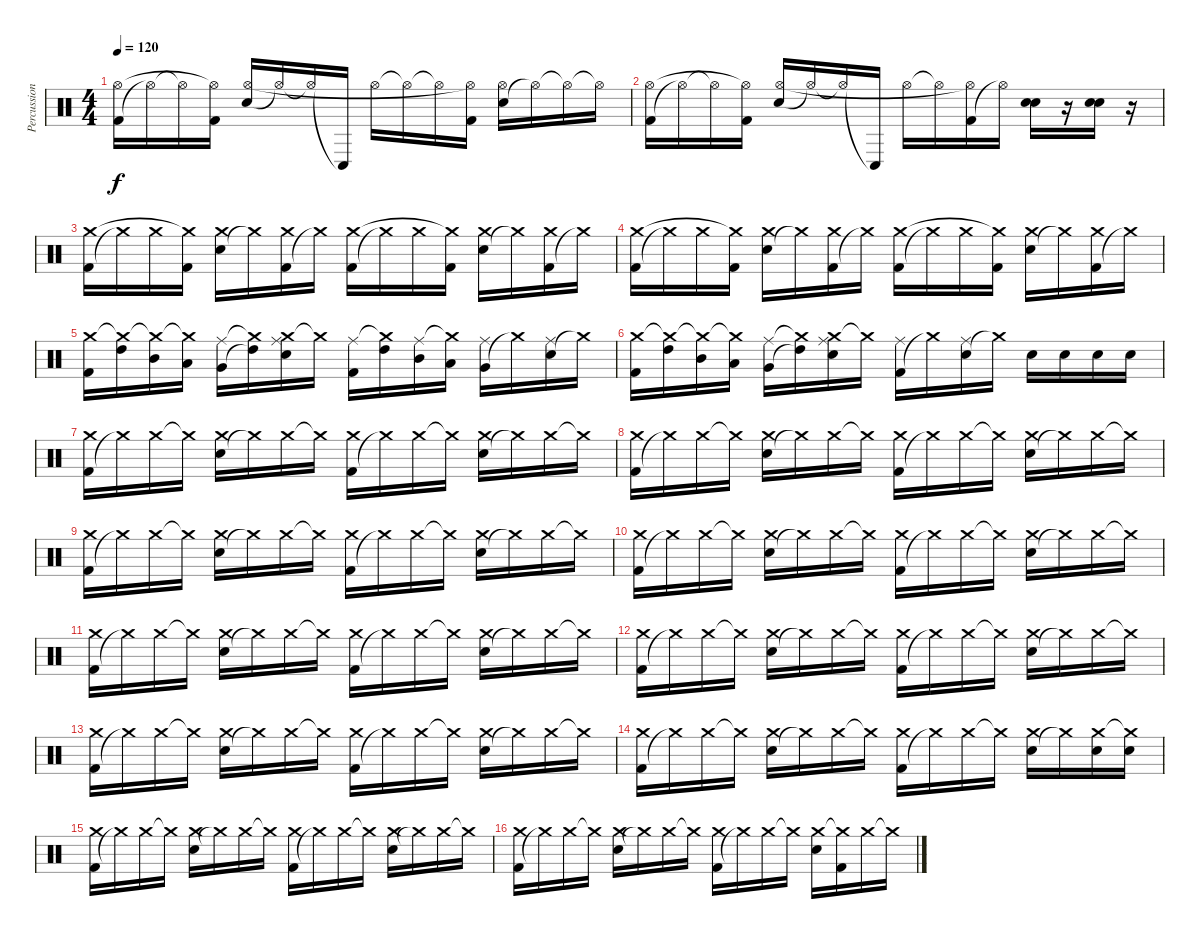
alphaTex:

\track ("Percussions" "Percussion") {instrument percussion}
\staff {score}
\articulation defaults
\ts (4 4)
\tempo 120
\clef neutral
\ks c
("Kick (hit) 2" "Hi-Hat (open)").16{dy f} "Hi-Hat (open)"{t}.16 "Hi-Hat (open)"{t}.16 ("Kick (hit) 2" "Hi-Hat (open)"{t}).16 ("Electric Snare (hit)" "Hi-Hat (open)").16 "Hi-Hat (open)"{t}.16 "Hi-Hat (open)"{t}.16 "Conga low (hit)"{t}.16 "Hi-Hat (open)".16 "Hi-Hat (open)"{t}.16 "Hi-Hat (open)"{t}.16 ("Kick (hit) 2" "Hi-Hat (open)"{t}).16 ("Electric Snare (hit)" "Hi-Hat (open)").16 "Hi-Hat (open)"{t}.16 "Hi-Hat (open)"{t}.16 "Hi-Hat (open)"{t}.16 |
("Kick (hit) 2" "Hi-Hat (open)").16 "Hi-Hat (open)"{t}.16 "Hi-Hat (open)"{t}.16 ("Kick (hit) 2" "Hi-Hat (open)"{t}).16 ("Electric Snare (hit)" "Hi-Hat (open)").16 "Hi-Hat (open)"{t}.16 "Hi-Hat (open)"{t}.16 "Conga low (hit)"{t}.16 "Hi-Hat (open)".16 "Hi-Hat (open)"{t}.16 ("Kick (hit) 2" "Hi-Hat (open)"{t}).16 "Hi-Hat (open)"{t}.16 ("Electric Snare (hit)" "Electric Snare (hit)").16 r.16 ("Electric Snare (hit)" "Electric Snare (hit)").16 r.16 |
("Kick (hit) 2" "Crash medium (hit)").16 "Crash medium (hit)"{t}.16 "Crash medium (hit)".16 ("Kick (hit) 2" "Crash medium (hit)"{t}).16 ("Electric Snare (hit)" "Crash medium (hit)").16 "Crash medium (hit)"{t}.16 ("Kick (hit) 2" "Crash medium (hit)").16 "Crash medium (hit)"{t}.16 ("Kick (hit) 2" "Crash medium (hit)").16 "Crash medium (hit)"{t}.16 "Crash medium (hit)".16 ("Kick (hit) 2" "Crash medium (hit)"{t}).16 ("Electric Snare (hit)" "Crash medium (hit)").16 "Crash medium (hit)"{t}.16 ("Kick (hit) 2" "Crash medium (hit)").16 "Crash medium (hit)"{t}.16 |
("Kick (hit) 2" "Crash medium (hit)").16 "Crash medium (hit)"{t}.16 "Crash medium (hit)".16 ("Kick (hit) 2" "Crash medium (hit)"{t}).16 ("Electric Snare (hit)" "Crash medium (hit)").16 "Crash medium (hit)"{t}.16 ("Kick (hit) 2" "Crash medium (hit)").16 "Crash medium (hit)"{t}.16 ("Kick (hit) 2" "Crash medium (hit)").16 "Crash medium (hit)"{t}.16 "Crash medium (hit)".16 ("Kick (hit) 2" "Crash medium (hit)"{t}).16 ("Electric Snare (hit)" "Crash medium (hit)").16 "Crash medium (hit)"{t}.16 ("Kick (hit) 2" "Crash medium (hit)").16 "Crash medium (hit)"{t}.16 |
("Kick (hit) 2" "Crash medium (hit)").16 ("High Tom (hit)" "Crash medium (hit)"{t}).16 ("Mid Tom (hit)" "Crash medium (hit)"{t}).16 ("Low Tom (hit)" "Crash medium (hit)"{t}).16 ("Very Low Tom (hit)" "Ride (middle)").16 ("High Tom (hit)"{t} "Crash medium (hit)"{t}).16 ("Crash medium (hit)" "Electric Snare (hit)" "Ride (middle)").16 "Crash medium (hit)"{t}.16 ("Kick (hit) 2" "Ride (middle)").16 ("High Tom (hit)" "Crash medium (hit)"{t}).16 ("Mid Tom (hit)" "Ride (middle)").16 ("Low Tom (hit)" "Crash medium (hit)"{t}).16 ("Very Low Tom (hit)" "Ride (middle)").16 "Crash medium (hit)"{t}.16 ("Electric Snare (hit)" "Ride (middle)").16 "Crash medium (hit)"{t}.16 |
("Kick (hit) 2" "Crash medium (hit)").16 ("High Tom (hit)" "Crash medium (hit)"{t}).16 ("Mid Tom (hit)" "Crash medium (hit)"{t}).16 ("Low Tom (hit)" "Crash medium (hit)"{t}).16 ("Very Low Tom (hit)" "Ride (middle)").16 ("High Tom (hit)"{t} "Crash medium (hit)"{t}).16 ("Crash medium (hit)" "Electric Snare (hit)" "Ride (middle)").16 "Crash medium (hit)"{t}.16 ("Kick (hit) 2" "Ride (middle)").16 "Crash medium (hit)"{t}.16 ("Electric Snare (hit)" "Ride (middle)").16 "Crash medium (hit)"{t}.16 "Electric Snare (hit)".16 "Electric Snare (hit)".16 "Electric Snare (hit)".16 "Electric Snare (hit)".16 |
("Kick (hit) 2" "Crash medium (hit)").16 "Crash medium (hit)"{t}.16 "Crash medium (hit)".16 "Crash medium (hit)"{t}.16 ("Electric Snare (hit)" "Crash medium (hit)").16 "Crash medium (hit)"{t}.16 "Crash medium (hit)".16 "Crash medium (hit)"{t}.16 ("Kick (hit) 2" "Crash medium (hit)").16 "Crash medium (hit)"{t}.16 "Crash medium (hit)".16 "Crash medium (hit)"{t}.16 ("Electric Snare (hit)" "Crash medium (hit)").16 "Crash medium (hit)"{t}.16 "Crash medium (hit)".16 "Crash medium (hit)"{t}.16 |
("Kick (hit) 2" "Crash medium (hit)").16 "Crash medium (hit)"{t}.16 "Crash medium (hit)".16 "Crash medium (hit)"{t}.16 ("Electric Snare (hit)" "Crash medium (hit)").16 "Crash medium (hit)"{t}.16 "Crash medium (hit)".16 "Crash medium (hit)"{t}.16 ("Kick (hit) 2" "Crash medium (hit)").16 "Crash medium (hit)"{t}.16 "Crash medium (hit)".16 "Crash medium (hit)"{t}.16 ("Electric Snare (hit)" "Crash medium (hit)").16 "Crash medium (hit)"{t}.16 "Crash medium (hit)".16 "Crash medium (hit)"{t}.16 |
("Kick (hit) 2" "Crash medium (hit)").16 "Crash medium (hit)"{t}.16 "Crash medium (hit)".16 "Crash medium (hit)"{t}.16 ("Electric Snare (hit)" "Crash medium (hit)").16 "Crash medium (hit)"{t}.16 "Crash medium (hit)".16 "Crash medium (hit)"{t}.16 ("Kick (hit) 2" "Crash medium (hit)").16 "Crash medium (hit)"{t}.16 "Crash medium (hit)".16 "Crash medium (hit)"{t}.16 ("Electric Snare (hit)" "Crash medium (hit)").16 "Crash medium (hit)"{t}.16 "Crash medium (hit)".16 "Crash medium (hit)"{t}.16 |
("Kick (hit) 2" "Crash medium (hit)").16 "Crash medium (hit)"{t}.16 "Crash medium (hit)".16 "Crash medium (hit)"{t}.16 ("Electric Snare (hit)" "Crash medium (hit)").16 "Crash medium (hit)"{t}.16 "Crash medium (hit)".16 "Crash medium (hit)"{t}.16 ("Kick (hit) 2" "Crash medium (hit)").16 "Crash medium (hit)"{t}.16 "Crash medium (hit)".16 "Crash medium (hit)"{t}.16 ("Electric Snare (hit)" "Crash medium (hit)").16 "Crash medium (hit)"{t}.16 "Crash medium (hit)".16 "Crash medium (hit)"{t}.16 |
("Kick (hit) 2" "Crash medium (hit)").16 "Crash medium (hit)"{t}.16 "Crash medium (hit)".16 "Crash medium (hit)"{t}.16 ("Electric Snare (hit)" "Crash medium (hit)").16 "Crash medium (hit)"{t}.16 "Crash medium (hit)".16 "Crash medium (hit)"{t}.16 ("Kick (hit) 2" "Crash medium (hit)").16 "Crash medium (hit)"{t}.16 "Crash medium (hit)".16 "Crash medium (hit)"{t}.16 ("Electric Snare (hit)" "Crash medium (hit)").16 "Crash medium (hit)"{t}.16 "Crash medium (hit)".16 "Crash medium (hit)"{t}.16 |
("Kick (hit) 2" "Crash medium (hit)").16 "Crash medium (hit)"{t}.16 "Crash medium (hit)".16 "Crash medium (hit)"{t}.16 ("Electric Snare (hit)" "Crash medium (hit)").16 "Crash medium (hit)"{t}.16 "Crash medium (hit)".16 "Crash medium (hit)"{t}.16 ("Kick (hit) 2" "Crash medium (hit)").16 "Crash medium (hit)"{t}.16 "Crash medium (hit)".16 "Crash medium (hit)"{t}.16 ("Electric Snare (hit)" "Crash medium (hit)").16 "Crash medium (hit)"{t}.16 "Crash medium (hit)".16 "Crash medium (hit)"{t}.16 |
("Kick (hit) 2" "Crash medium (hit)").16 "Crash medium (hit)"{t}.16 "Crash medium (hit)".16 "Crash medium (hit)"{t}.16 ("Electric Snare (hit)" "Crash medium (hit)").16 "Crash medium (hit)"{t}.16 "Crash medium (hit)".16 "Crash medium (hit)"{t}.16 ("Kick (hit) 2" "Crash medium (hit)").16 "Crash medium (hit)"{t}.16 "Crash medium (hit)".16 "Crash medium (hit)"{t}.16 ("Electric Snare (hit)" "Crash medium (hit)").16 "Crash medium (hit)"{t}.16 "Crash medium (hit)".16 "Crash medium (hit)"{t}.16 |
("Kick (hit) 2" "Crash medium (hit)").16 "Crash medium (hit)"{t}.16 "Crash medium (hit)".16 "Crash medium (hit)"{t}.16 ("Electric Snare (hit)" "Crash medium (hit)").16 "Crash medium (hit)"{t}.16 "Crash medium (hit)".16 "Crash medium (hit)"{t}.16 ("Kick (hit) 2" "Crash medium (hit)").16 "Crash medium (hit)"{t}.16 "Crash medium (hit)".16 "Crash medium (hit)"{t}.16 ("Electric Snare (hit)" "Crash medium (hit)").16 "Crash medium (hit)"{t}.16 ("Electric Snare (hit)" "Crash medium (hit)").16 ("Electric Snare (hit)" "Crash medium (hit)"{t}).16 |
("Kick (hit) 2" "Crash medium (hit)").16 "Crash medium (hit)"{t}.16 "Crash medium (hit)".16 "Crash medium (hit)"{t}.16 ("Electric Snare (hit)" "Crash medium (hit)").16 "Crash medium (hit)"{t}.16 "Crash medium (hit)".16 "Crash medium (hit)"{t}.16 ("Kick (hit) 2" "Crash medium (hit)").16 "Crash medium (hit)"{t}.16 "Crash medium (hit)".16 "Crash medium (hit)"{t}.16 ("Electric Snare (hit)" "Crash medium (hit)").16 "Crash medium (hit)"{t}.16 "Crash medium (hit)".16 "Crash medium (hit)"{t}.16 |
("Kick (hit) 2" "Crash medium (hit)").16 "Crash medium (hit)"{t}.16 "Crash medium (hit)".16 "Crash medium (hit)"{t}.16 ("Electric Snare (hit)" "Crash medium (hit)").16 "Crash medium (hit)"{t}.16 "Crash medium (hit)".16 "Crash medium (hit)"{t}.16 ("Kick (hit) 2" "Crash medium (hit)").16 "Crash medium (hit)"{t}.16 "Crash medium (hit)".16 "Crash medium (hit)"{t}.16 ("Electric Snare (hit)" "Crash medium (hit)").16 ("Kick (hit) 2" "Crash medium (hit)"{t}).16 "Crash medium (hit)".16 "Crash medium (hit)"{t}.16
